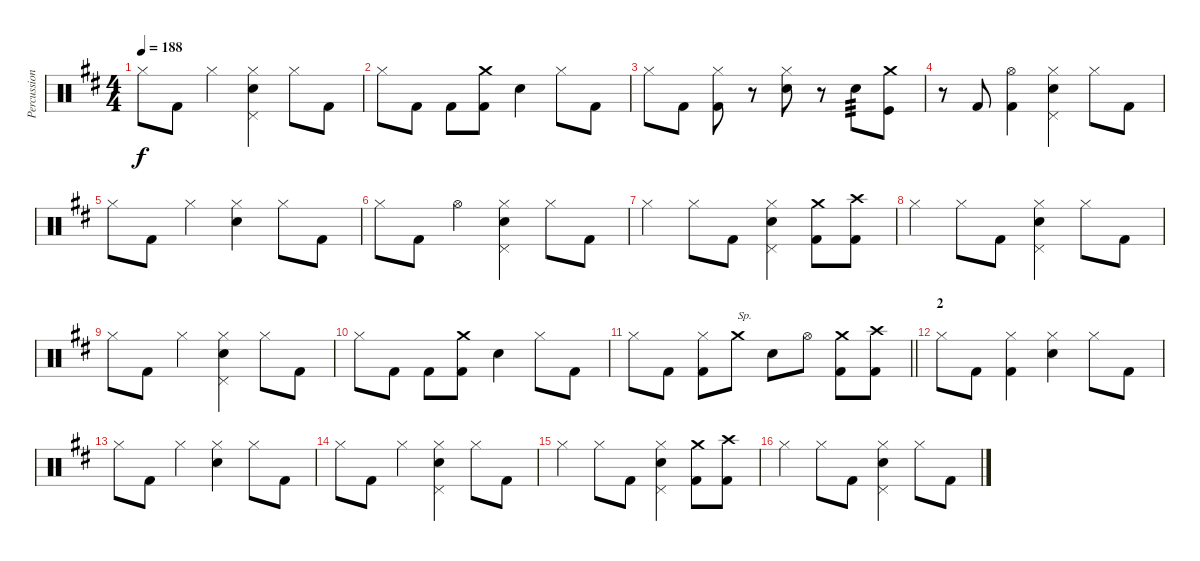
\track ("Percussion" "Percussion") {instrument percussion}
\staff {score}
\articulation defaults
\ts (4 4)
\tempo 188
\clef neutral
\ks bminor "Hi-Hat (closed)".8{dy f} "Kick (hit) 2".8 "Hi-Hat (closed)".4
("Pedal Hi-Hat (hit)" "Electric Snare (hit)" "Hi-Hat (closed)").4 "Hi-Hat (closed)".8 "Kick (hit) 2".8 |
"Hi-Hat (closed)".8 "Kick (hit) 2".8 "Kick (hit) 2".8 ("Crash medium (hit)" "Kick (hit) 2").8 "Electric Snare (hit)".4 "Hi-Hat (closed)".8 "Kick (hit) 2".8 |
"Hi-Hat (closed)".8 "Kick (hit) 2".8 ("Kick (hit) 2" "Hi-Hat (closed)").8 r.8 ("Electric Snare (hit)" "Hi-Hat (closed)").8 r.8 "Electric Snare (hit)".8{tp 3} ("Crash medium (hit)" "Kick (hit)").8 |
r.8 "Kick (hit) 2".8 ("Kick (hit) 2" "Hi-Hat (open)").4 ("Electric Snare (hit)" "Pedal Hi-Hat (hit)" "Hi-Hat (closed)").4 "Hi-Hat (closed)".8 "Kick (hit) 2".8 |
"Hi-Hat (closed)".8 "Kick (hit) 2".8 "Hi-Hat (closed)".4 ("Electric Snare (hit)" "Hi-Hat (closed)").4 "Hi-Hat (closed)".8 "Kick (hit) 2".8 |
"Hi-Hat (closed)".8 "Kick (hit) 2".8 "Hi-Hat (open)".4 ("Electric Snare (hit)" "Pedal Hi-Hat (hit)" "Hi-Hat (closed)").4 "Hi-Hat (closed)".8 "Kick (hit) 2".8 |
"Hi-Hat (closed)".4 "Hi-Hat (closed)".8 "Kick (hit) 2".8 ("Pedal Hi-Hat (hit)" "Electric Snare (hit)" "Hi-Hat (closed)").4 ("Kick (hit) 2" "Crash medium (hit)").8 ("Crash high (hit)" "Kick (hit) 2").8 |
"Hi-Hat (closed)".4 "Hi-Hat (closed)".8 "Kick (hit) 2".8 ("Pedal Hi-Hat (hit)" "Electric Snare (hit)" "Hi-Hat (closed)").4 "Hi-Hat (closed)".8 "Kick (hit) 2".8 |
"Hi-Hat (closed)".8 "Kick (hit) 2".8 "Hi-Hat (closed)".4 ("Pedal Hi-Hat (hit)" "Electric Snare (hit)" "Hi-Hat (closed)").4 "Hi-Hat (closed)".8 "Kick (hit) 2".8 |
"Hi-Hat (closed)".8 "Kick (hit) 2".8 "Kick (hit) 2".8 ("Crash medium (hit)" "Kick (hit) 2").8 "Electric Snare (hit)".4 "Hi-Hat (closed)".8 "Kick (hit) 2".8 |
\barLineRight lightlight "Hi-Hat (closed)".8 "Kick (hit) 2".8
("Kick (hit) 2" "Hi-Hat (closed)").8 "Crash medium (hit)".8{txt "Sp."} "Electric Snare (hit)".8 "Hi-Hat (open)".8 ("Crash medium (hit)" "Kick (hit) 2").8 ("Crash high (hit)" "Kick (hit) 2").8 |
\section ("" "2")
"Hi-Hat (closed)".8 "Kick (hit) 2".8 ("Kick (hit) 2" "Hi-Hat (closed)").4 ("Electric Snare (hit)" "Hi-Hat (closed)").4 "Hi-Hat (closed)".8 "Kick (hit) 2".8 |
"Hi-Hat (closed)".8 "Kick (hit) 2".8 "Hi-Hat (closed)".4 ("Electric Snare (hit)" "Hi-Hat (closed)").4 "Hi-Hat (closed)".8 "Kick (hit) 2".8 |
"Hi-Hat (closed)".8 "Kick (hit) 2".8 "Hi-Hat (closed)".4 ("Electric Snare (hit)" "Pedal Hi-Hat (hit)" "Hi-Hat (closed)").4 "Hi-Hat (closed)".8 "Kick (hit) 2".8 |
"Hi-Hat (closed)".4 "Hi-Hat (closed)".8 "Kick (hit) 2".8 ("Pedal Hi-Hat (hit)" "Electric Snare (hit)" "Hi-Hat (closed)").4 ("Kick (hit) 2" "Crash medium (hit)").8 ("Crash high (hit)" "Kick (hit) 2").8 |
"Hi-Hat (closed)".4 "Hi-Hat (closed)".8 "Kick (hit) 2".8 ("Pedal Hi-Hat (hit)" "Electric Snare (hit)" "Hi-Hat (closed)").4 "Hi-Hat (closed)".8 "Kick (hit) 2".8
